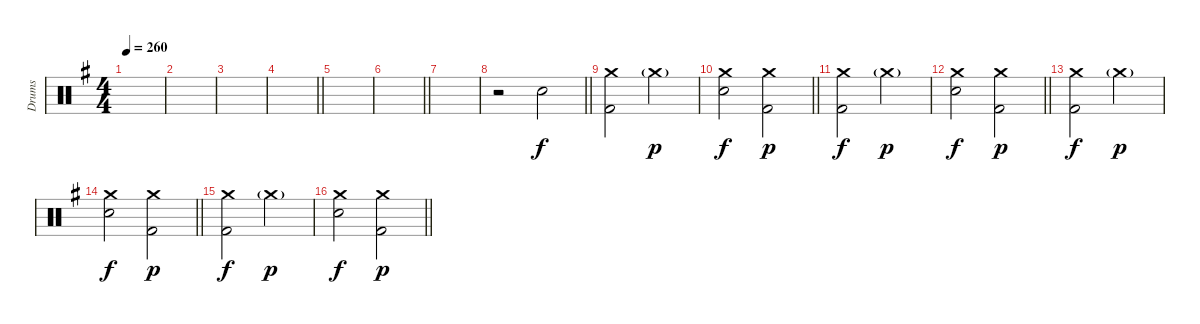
\track ("Drums" "Drums") {instrument percussion}
\staff {score}
\articulation defaults
\ts (4 4)
\section ("" "")
\tempo 260
\clef neutral
\ks eminor
|
|
|
\barLineRight lightlight
|
\section ("" "")
|
\barLineRight lightlight
|
|
\barLineRight lightlight
r.2 "Electric Snare (hit)".2 |
\section ("" "")
("Crash medium (hit)" "Kick (hit) 2").2 "Crash medium (hit)"{g}.2{dy p} |
\barLineRight lightlight
("Crash medium (hit)" "Electric Snare (hit)").2{dy f} ("Crash medium (hit)" "Kick (hit) 2").2{dy p} |
("Crash medium (hit)" "Kick (hit) 2").2{dy f} "Crash medium (hit)"{g}.2{dy p} |
\barLineRight lightlight
("Crash medium (hit)" "Electric Snare (hit)").2{dy f} ("Crash medium (hit)" "Kick (hit) 2").2{dy p} |
("Crash medium (hit)" "Kick (hit) 2").2{dy f} "Crash medium (hit)"{g}.2{dy p} |
\barLineRight lightlight
("Crash medium (hit)" "Electric Snare (hit)").2{dy f} ("Crash medium (hit)" "Kick (hit) 2").2{dy p} |
("Crash medium (hit)" "Kick (hit) 2").2{dy f} "Crash medium (hit)"{g}.2{dy p} |
\barLineRight lightlight
("Crash medium (hit)" "Electric Snare (hit)").2{dy f} ("Crash medium (hit)" "Kick (hit) 2").2{dy p}
